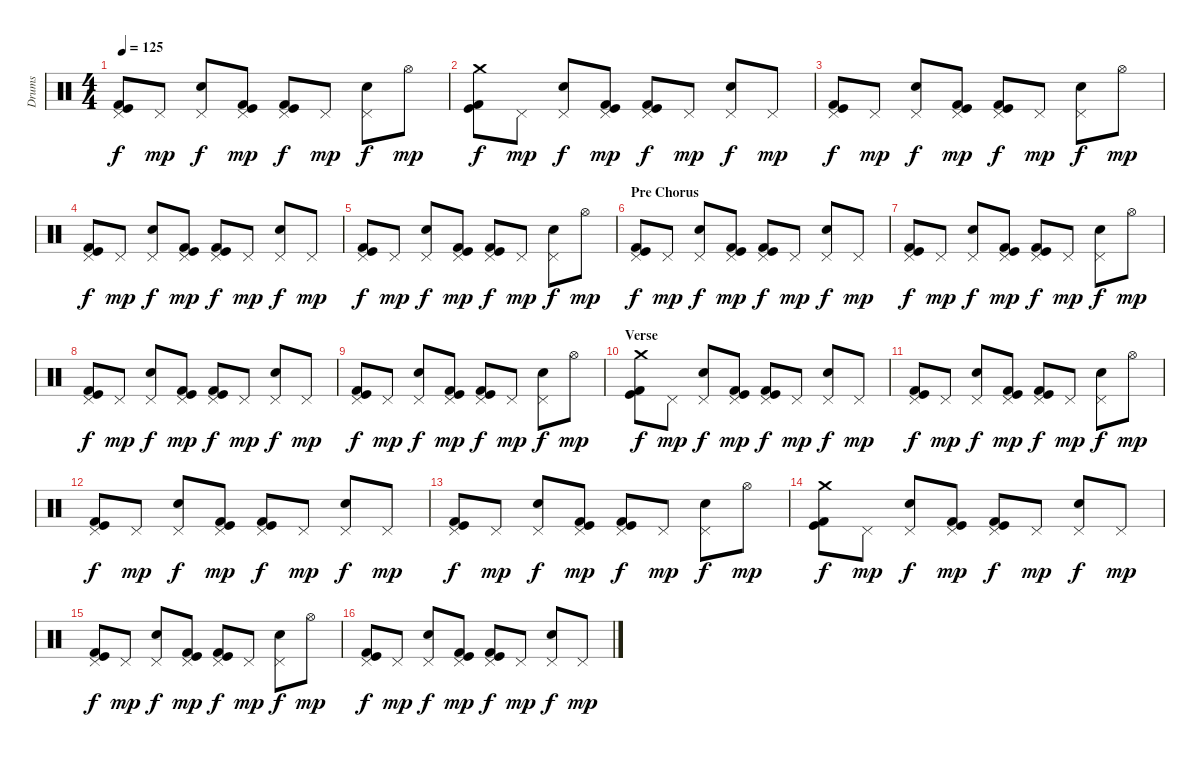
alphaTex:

\track ("Drums" "Drums") {instrument percussion}
\staff {score}
\articulation defaults
\ts (4 4)
\tempo 125
\clef neutral
\ks c
("Pedal Hi-Hat (hit)" "Kick (hit) 2" "Kick (hit)").8{dy f} "Pedal Hi-Hat (hit)".8{dy mp} ("Pedal Hi-Hat (hit)" "Electric Snare (hit)").8{dy f} ("Pedal Hi-Hat (hit)" "Kick (hit) 2" "Kick (hit)").8{dy mp} ("Pedal Hi-Hat (hit)" "Kick (hit) 2" "Kick (hit)").8{dy f} "Pedal Hi-Hat (hit)".8{dy mp} ("Pedal Hi-Hat (hit)" "Electric Snare (hit)").8{dy f} "Hi-Hat (open)".8{dy mp} |
("Crash medium (hit)" "Kick (hit) 2" "Kick (hit)").8{dy f} "Pedal Hi-Hat (hit)".8{dy mp} ("Pedal Hi-Hat (hit)" "Electric Snare (hit)").8{dy f} ("Pedal Hi-Hat (hit)" "Kick (hit) 2" "Kick (hit)").8{dy mp} ("Pedal Hi-Hat (hit)" "Kick (hit) 2" "Kick (hit)").8{dy f} "Pedal Hi-Hat (hit)".8{dy mp} ("Pedal Hi-Hat (hit)" "Electric Snare (hit)").8{dy f} "Pedal Hi-Hat (hit)".8{dy mp} |
("Pedal Hi-Hat (hit)" "Kick (hit) 2" "Kick (hit)").8{dy f} "Pedal Hi-Hat (hit)".8{dy mp} ("Pedal Hi-Hat (hit)" "Electric Snare (hit)").8{dy f} ("Pedal Hi-Hat (hit)" "Kick (hit) 2" "Kick (hit)").8{dy mp} ("Pedal Hi-Hat (hit)" "Kick (hit) 2" "Kick (hit)").8{dy f} "Pedal Hi-Hat (hit)".8{dy mp} ("Pedal Hi-Hat (hit)" "Electric Snare (hit)").8{dy f} "Hi-Hat (open)".8{dy mp} |
("Pedal Hi-Hat (hit)" "Kick (hit) 2" "Kick (hit)").8{dy f} "Pedal Hi-Hat (hit)".8{dy mp} ("Pedal Hi-Hat (hit)" "Electric Snare (hit)").8{dy f} ("Pedal Hi-Hat (hit)" "Kick (hit) 2" "Kick (hit)").8{dy mp} ("Pedal Hi-Hat (hit)" "Kick (hit) 2" "Kick (hit)").8{dy f} "Pedal Hi-Hat (hit)".8{dy mp} ("Pedal Hi-Hat (hit)" "Electric Snare (hit)").8{dy f} "Pedal Hi-Hat (hit)".8{dy mp} |
("Pedal Hi-Hat (hit)" "Kick (hit) 2" "Kick (hit)").8{dy f} "Pedal Hi-Hat (hit)".8{dy mp} ("Pedal Hi-Hat (hit)" "Electric Snare (hit)").8{dy f} ("Pedal Hi-Hat (hit)" "Kick (hit) 2" "Kick (hit)").8{dy mp} ("Pedal Hi-Hat (hit)" "Kick (hit) 2" "Kick (hit)").8{dy f} "Pedal Hi-Hat (hit)".8{dy mp} ("Pedal Hi-Hat (hit)" "Electric Snare (hit)").8{dy f} "Hi-Hat (open)".8{dy mp} |
\section ("" "Pre Chorus")
("Pedal Hi-Hat (hit)" "Kick (hit) 2" "Kick (hit)").8{dy f} "Pedal Hi-Hat (hit)".8{dy mp} ("Pedal Hi-Hat (hit)" "Electric Snare (hit)").8{dy f} ("Pedal Hi-Hat (hit)" "Kick (hit) 2" "Kick (hit)").8{dy mp} ("Pedal Hi-Hat (hit)" "Kick (hit) 2" "Kick (hit)").8{dy f} "Pedal Hi-Hat (hit)".8{dy mp} ("Pedal Hi-Hat (hit)" "Electric Snare (hit)").8{dy f} "Pedal Hi-Hat (hit)".8{dy mp} |
("Pedal Hi-Hat (hit)" "Kick (hit) 2" "Kick (hit)").8{dy f} "Pedal Hi-Hat (hit)".8{dy mp} ("Pedal Hi-Hat (hit)" "Electric Snare (hit)").8{dy f} ("Pedal Hi-Hat (hit)" "Kick (hit) 2" "Kick (hit)").8{dy mp} ("Pedal Hi-Hat (hit)" "Kick (hit) 2" "Kick (hit)").8{dy f} "Pedal Hi-Hat (hit)".8{dy mp} ("Pedal Hi-Hat (hit)" "Electric Snare (hit)").8{dy f} "Hi-Hat (open)".8{dy mp} |
("Pedal Hi-Hat (hit)" "Kick (hit) 2" "Kick (hit)").8{dy f} "Pedal Hi-Hat (hit)".8{dy mp} ("Pedal Hi-Hat (hit)" "Electric Snare (hit)").8{dy f} ("Pedal Hi-Hat (hit)" "Kick (hit) 2" "Kick (hit)").8{dy mp} ("Pedal Hi-Hat (hit)" "Kick (hit) 2" "Kick (hit)").8{dy f} "Pedal Hi-Hat (hit)".8{dy mp} ("Pedal Hi-Hat (hit)" "Electric Snare (hit)").8{dy f} "Pedal Hi-Hat (hit)".8{dy mp} |
("Pedal Hi-Hat (hit)" "Kick (hit) 2" "Kick (hit)").8{dy f} "Pedal Hi-Hat (hit)".8{dy mp} ("Pedal Hi-Hat (hit)" "Electric Snare (hit)").8{dy f} ("Pedal Hi-Hat (hit)" "Kick (hit) 2" "Kick (hit)").8{dy mp} ("Pedal Hi-Hat (hit)" "Kick (hit) 2" "Kick (hit)").8{dy f} "Pedal Hi-Hat (hit)".8{dy mp} ("Pedal Hi-Hat (hit)" "Electric Snare (hit)").8{dy f} "Hi-Hat (open)".8{dy mp} |
\section ("" "Verse")
("Crash medium (hit)" "Kick (hit) 2" "Kick (hit)").8{dy f} "Pedal Hi-Hat (hit)".8{dy mp} ("Pedal Hi-Hat (hit)" "Electric Snare (hit)").8{dy f} ("Pedal Hi-Hat (hit)" "Kick (hit) 2" "Kick (hit)").8{dy mp} ("Pedal Hi-Hat (hit)" "Kick (hit) 2" "Kick (hit)").8{dy f} "Pedal Hi-Hat (hit)".8{dy mp} ("Pedal Hi-Hat (hit)" "Electric Snare (hit)").8{dy f} "Pedal Hi-Hat (hit)".8{dy mp} |
("Pedal Hi-Hat (hit)" "Kick (hit) 2" "Kick (hit)").8{dy f} "Pedal Hi-Hat (hit)".8{dy mp} ("Pedal Hi-Hat (hit)" "Electric Snare (hit)").8{dy f} ("Pedal Hi-Hat (hit)" "Kick (hit) 2" "Kick (hit)").8{dy mp} ("Pedal Hi-Hat (hit)" "Kick (hit) 2" "Kick (hit)").8{dy f} "Pedal Hi-Hat (hit)".8{dy mp} ("Pedal Hi-Hat (hit)" "Electric Snare (hit)").8{dy f} "Hi-Hat (open)".8{dy mp} |
("Pedal Hi-Hat (hit)" "Kick (hit) 2" "Kick (hit)").8{dy f} "Pedal Hi-Hat (hit)".8{dy mp} ("Pedal Hi-Hat (hit)" "Electric Snare (hit)").8{dy f} ("Pedal Hi-Hat (hit)" "Kick (hit) 2" "Kick (hit)").8{dy mp} ("Pedal Hi-Hat (hit)" "Kick (hit) 2" "Kick (hit)").8{dy f} "Pedal Hi-Hat (hit)".8{dy mp} ("Pedal Hi-Hat (hit)" "Electric Snare (hit)").8{dy f} "Pedal Hi-Hat (hit)".8{dy mp} |
("Pedal Hi-Hat (hit)" "Kick (hit) 2" "Kick (hit)").8{dy f} "Pedal Hi-Hat (hit)".8{dy mp} ("Pedal Hi-Hat (hit)" "Electric Snare (hit)").8{dy f} ("Pedal Hi-Hat (hit)" "Kick (hit) 2" "Kick (hit)").8{dy mp} ("Pedal Hi-Hat (hit)" "Kick (hit) 2" "Kick (hit)").8{dy f} "Pedal Hi-Hat (hit)".8{dy mp} ("Pedal Hi-Hat (hit)" "Electric Snare (hit)").8{dy f} "Hi-Hat (open)".8{dy mp} |
("Crash medium (hit)" "Kick (hit) 2" "Kick (hit)").8{dy f} "Pedal Hi-Hat (hit)".8{dy mp} ("Pedal Hi-Hat (hit)" "Electric Snare (hit)").8{dy f} ("Pedal Hi-Hat (hit)" "Kick (hit) 2" "Kick (hit)").8{dy mp} ("Pedal Hi-Hat (hit)" "Kick (hit) 2" "Kick (hit)").8{dy f} "Pedal Hi-Hat (hit)".8{dy mp} ("Pedal Hi-Hat (hit)" "Electric Snare (hit)").8{dy f} "Pedal Hi-Hat (hit)".8{dy mp} |
("Pedal Hi-Hat (hit)" "Kick (hit) 2" "Kick (hit)").8{dy f} "Pedal Hi-Hat (hit)".8{dy mp} ("Pedal Hi-Hat (hit)" "Electric Snare (hit)").8{dy f} ("Pedal Hi-Hat (hit)" "Kick (hit) 2" "Kick (hit)").8{dy mp} ("Pedal Hi-Hat (hit)" "Kick (hit) 2" "Kick (hit)").8{dy f} "Pedal Hi-Hat (hit)".8{dy mp} ("Pedal Hi-Hat (hit)" "Electric Snare (hit)").8{dy f} "Hi-Hat (open)".8{dy mp} |
("Pedal Hi-Hat (hit)" "Kick (hit) 2" "Kick (hit)").8{dy f} "Pedal Hi-Hat (hit)".8{dy mp} ("Pedal Hi-Hat (hit)" "Electric Snare (hit)").8{dy f} ("Pedal Hi-Hat (hit)" "Kick (hit) 2" "Kick (hit)").8{dy mp} ("Pedal Hi-Hat (hit)" "Kick (hit) 2" "Kick (hit)").8{dy f} "Pedal Hi-Hat (hit)".8{dy mp} ("Pedal Hi-Hat (hit)" "Electric Snare (hit)").8{dy f} "Pedal Hi-Hat (hit)".8{dy mp}
